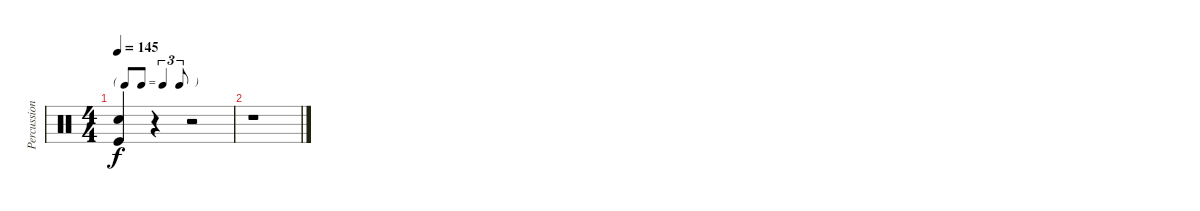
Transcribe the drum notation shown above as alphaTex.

\track ("Percussion" "Percussion") {instrument percussion}
\staff {score}
\articulation defaults
\ts (4 4)
\tf triplet8th
\tempo 145
\clef neutral
\ks c
("Snare (hit) 2" "Kick (hit)").4{dy f} r.4 r.2 |
r.1
